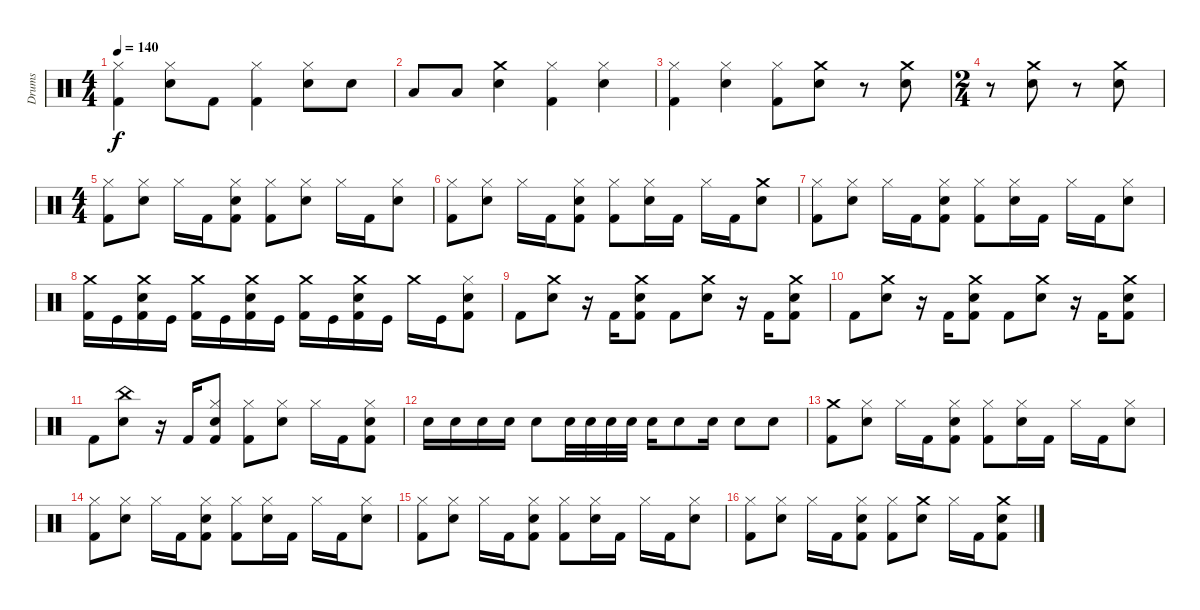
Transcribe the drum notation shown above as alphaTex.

\track ("Drums" "Drums") {instrument percussion}
\staff {score}
\articulation defaults
\ts (4 4)
\tempo 140
\clef neutral
\ks c
("Kick (hit) 2" "Hi-Hat (closed)").4{dy f} ("Hi-Hat (closed)" "Snare (hit) 2").8 "Kick (hit) 2".8 ("Kick (hit) 2" "Hi-Hat (closed)").4 ("Hi-Hat (closed)" "Snare (hit) 2").8 "Snare (hit) 2".8 |
"Low Tom (hit)".8 "Low Tom (hit)".8 ("Snare (hit) 2" "Crash medium (hit)").4 ("Kick (hit) 2" "Hi-Hat (closed)").4 ("Hi-Hat (closed)" "Snare (hit) 2").4 |
("Kick (hit) 2" "Hi-Hat (closed)").4 ("Hi-Hat (closed)" "Snare (hit) 2").4 ("Hi-Hat (closed)" "Kick (hit) 2").8 ("Crash medium (hit)" "Snare (hit) 2").8 r.8 ("Snare (hit) 2" "Crash medium (hit)").8 |
\ts (2 4)
r.8 ("Crash medium (hit)" "Snare (hit) 2").8 r.8 ("Crash medium (hit)" "Snare (hit) 2").8 |
\ts (4 4)
("Hi-Hat (closed)" "Kick (hit) 2").8 ("Snare (hit) 2" "Hi-Hat (closed)").8 "Hi-Hat (closed)".16 "Kick (hit) 2".16 ("Snare (hit) 2" "Hi-Hat (closed)" "Kick (hit) 2").8 ("Hi-Hat (closed)" "Kick (hit) 2").8 ("Snare (hit) 2" "Hi-Hat (closed)").8 "Hi-Hat (closed)".16 "Kick (hit) 2".16 ("Snare (hit) 2" "Hi-Hat (closed)").8 |
("Kick (hit) 2" "Hi-Hat (closed)").8 ("Snare (hit) 2" "Hi-Hat (closed)").8 "Hi-Hat (closed)".16 "Kick (hit) 2".16 ("Kick (hit) 2" "Snare (hit) 2" "Hi-Hat (closed)").8 ("Kick (hit) 2" "Hi-Hat (closed)").8 ("Snare (hit) 2" "Hi-Hat (closed)").16 "Kick (hit) 2".16 "Hi-Hat (closed)".16 "Kick (hit) 2".16 ("Crash medium (hit)" "Snare (hit) 2").8 |
("Kick (hit) 2" "Hi-Hat (closed)").8 ("Snare (hit) 2" "Hi-Hat (closed)").8 "Hi-Hat (closed)".16 "Kick (hit) 2".16 ("Kick (hit) 2" "Snare (hit) 2" "Hi-Hat (closed)").8 ("Kick (hit) 2" "Hi-Hat (closed)").8 ("Snare (hit) 2" "Hi-Hat (closed)").16 "Kick (hit) 2".16 "Hi-Hat (closed)".16 "Kick (hit) 2".16 ("Hi-Hat (closed)" "Snare (hit) 2").8 |
("Crash medium (hit)" "Kick (hit) 2").16 "Kick (hit)".16 ("Snare (hit) 2" "Crash medium (hit)" "Kick (hit) 2").16 "Kick (hit)".16 ("Crash medium (hit)" "Kick (hit) 2").16 "Kick (hit)".16 ("Snare (hit) 2" "Crash medium (hit)" "Kick (hit) 2").16 "Kick (hit)".16 ("Crash medium (hit)" "Kick (hit) 2").16 "Kick (hit)".16 ("Snare (hit) 2" "Crash medium (hit)" "Kick (hit) 2").16 "Kick (hit)".16 "Crash medium (hit)".16 "Kick (hit)".16 ("Hi-Hat (closed)" "Snare (hit) 2" "Kick (hit) 2").8 |
"Kick (hit) 2".8 ("Snare (hit) 2" "Crash medium (hit)").8 r.16 "Kick (hit) 2".16 ("Kick (hit) 2" "Snare (hit) 2" "Crash medium (hit)").8 "Kick (hit) 2".8 ("Snare (hit) 2" "Crash medium (hit)").8 r.16 "Kick (hit) 2".16 ("Kick (hit) 2" "Snare (hit) 2" "Crash medium (hit)").8 |
"Kick (hit) 2".8 ("Snare (hit) 2" "Crash medium (hit)").8 r.16 "Kick (hit) 2".16 ("Kick (hit) 2" "Snare (hit) 2" "Crash medium (hit)").8 "Kick (hit) 2".8 ("Snare (hit) 2" "Crash medium (hit)").8 r.16 "Kick (hit) 2".16 ("Kick (hit) 2" "Snare (hit) 2" "Crash medium (hit)").8 |
"Kick (hit) 2".8 ("China (hit)" "Snare (hit) 2").8 r.16 "Kick (hit) 2".16 ("Hi-Hat (closed)" "Kick (hit) 2" "Snare (hit) 2").8 ("Hi-Hat (closed)" "Kick (hit) 2").8 ("Hi-Hat (closed)" "Snare (hit) 2").8 "Hi-Hat (closed)".16 "Kick (hit) 2".16 ("Hi-Hat (closed)" "Kick (hit) 2" "Snare (hit) 2").8 |
"Snare (hit) 2".16 "Snare (hit) 2".16 "Snare (hit) 2".16 "Snare (hit) 2".16 "Snare (hit) 2".8 "Snare (hit) 2".32 "Snare (hit) 2".32 "Snare (hit) 2".32 "Snare (hit) 2".32 "Snare (hit) 2".16 "Snare (hit) 2".8 "Snare (hit) 2".16 "Snare (hit) 2".8 "Snare (hit) 2".8 |
("Kick (hit) 2" "Crash medium (hit)").8 ("Snare (hit) 2" "Hi-Hat (closed)").8 "Hi-Hat (closed)".16 "Kick (hit) 2".16 ("Kick (hit) 2" "Snare (hit) 2" "Hi-Hat (closed)").8 ("Kick (hit) 2" "Hi-Hat (closed)").8 ("Snare (hit) 2" "Hi-Hat (closed)").16 "Kick (hit) 2".16 "Hi-Hat (closed)".16 "Kick (hit) 2".16 ("Snare (hit) 2" "Hi-Hat (closed)").8 |
("Hi-Hat (closed)" "Kick (hit) 2").8 ("Snare (hit) 2" "Hi-Hat (closed)").8 "Hi-Hat (closed)".16 "Kick (hit) 2".16 ("Kick (hit) 2" "Snare (hit) 2" "Hi-Hat (closed)").8 ("Kick (hit) 2" "Hi-Hat (closed)").8 ("Snare (hit) 2" "Hi-Hat (closed)").16 "Kick (hit) 2".16 "Hi-Hat (closed)".16 "Kick (hit) 2".16 ("Snare (hit) 2" "Hi-Hat (closed)").8 |
("Hi-Hat (closed)" "Kick (hit) 2").8 ("Snare (hit) 2" "Hi-Hat (closed)").8 "Hi-Hat (closed)".16 "Kick (hit) 2".16 ("Snare (hit) 2" "Hi-Hat (closed)" "Kick (hit) 2").8 ("Hi-Hat (closed)" "Kick (hit) 2").8 ("Snare (hit) 2" "Hi-Hat (closed)").16 "Kick (hit) 2".16 "Hi-Hat (closed)".16 "Kick (hit) 2".16 ("Snare (hit) 2" "Hi-Hat (closed)").8 |
("Hi-Hat (closed)" "Kick (hit) 2").8 ("Snare (hit) 2" "Hi-Hat (closed)").8 "Hi-Hat (closed)".16 "Kick (hit) 2".16 ("Kick (hit) 2" "Snare (hit) 2" "Hi-Hat (closed)").8 ("Hi-Hat (closed)" "Kick (hit) 2").8 ("Crash medium (hit)" "Snare (hit) 2").8 "Hi-Hat (closed)".16 "Kick (hit) 2".16 ("Kick (hit) 2" "Crash medium (hit)" "Snare (hit) 2").8
